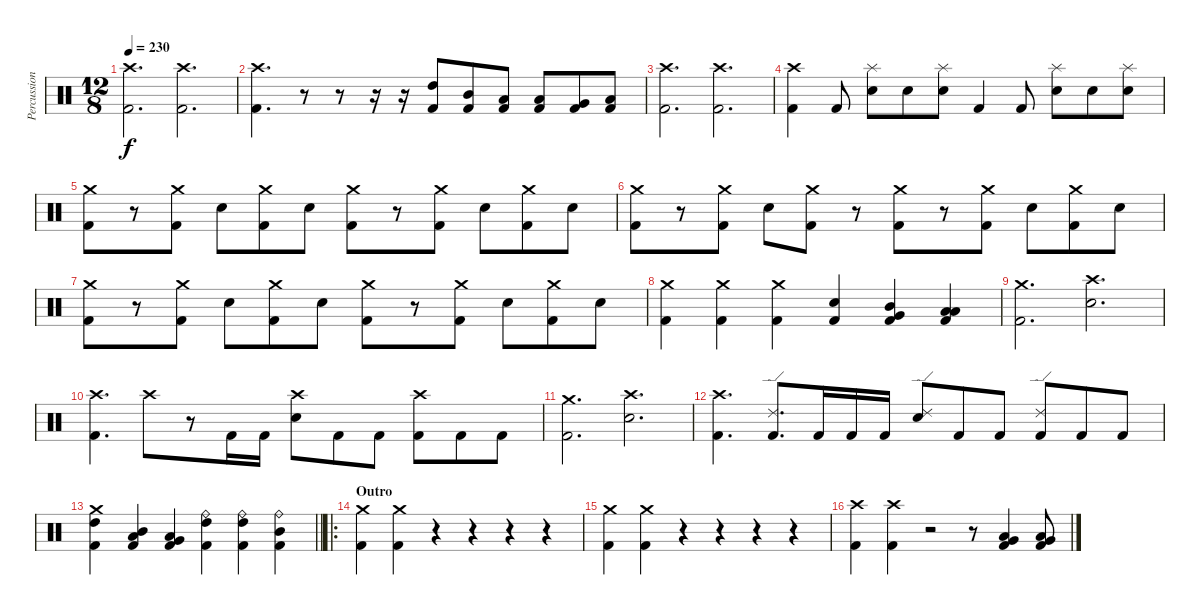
\track ("Percussions" "Percussion") {instrument percussion}
\staff {score}
\articulation defaults
\ts (12 8)
\tempo 230
\clef neutral
\ks c
("Crash high (hit)" "Kick (hit) 2").2{d dy f} ("Crash high (hit)" "Kick (hit) 2").2{d} |
("Crash high (hit)" "Kick (hit) 2").4{d} r.8 r.8 r.16 r.16 ("High Tom (hit)" "Kick (hit) 2").8 ("Mid Tom (hit)" "Kick (hit) 2").8 ("Low Tom (hit)" "Kick (hit) 2").8 ("Low Tom (hit)" "Kick (hit) 2").8 ("Very Low Tom (hit)" "Kick (hit) 2").8 ("Low Floor Tom (hit)" "Kick (hit) 2").8 |
("Crash high (hit)" "Kick (hit) 2").2{d} ("Crash high (hit)" "Kick (hit) 2").2{d} |
("Crash high (hit)" "Kick (hit) 2").4 "Kick (hit) 2".8 ("Splash (hit)" "Electric Snare (hit)").8 "Electric Snare (hit)".8 ("Splash (hit)" "Electric Snare (hit)").8 "Kick (hit) 2".4 "Kick (hit) 2".8 ("Splash (hit)" "Electric Snare (hit)").8 "Electric Snare (hit)".8 ("Splash (hit)" "Electric Snare (hit)").8 |
("Crash medium (hit)" "Kick (hit) 2").8 r.8 ("Crash medium (hit)" "Kick (hit) 2").8 "Electric Snare (hit)".8 ("Crash medium (hit)" "Kick (hit) 2").8 "Electric Snare (hit)".8 ("Crash medium (hit)" "Kick (hit) 2").8 r.8 ("Crash medium (hit)" "Kick (hit) 2").8 "Electric Snare (hit)".8 ("Crash medium (hit)" "Kick (hit) 2").8 "Electric Snare (hit)".8 |
("Crash medium (hit)" "Kick (hit) 2").8 r.8 ("Crash medium (hit)" "Kick (hit) 2").8 "Electric Snare (hit)".8 ("Crash medium (hit)" "Kick (hit) 2").8 r.8 ("Crash medium (hit)" "Kick (hit) 2").8 r.8 ("Crash medium (hit)" "Kick (hit) 2").8 "Electric Snare (hit)".8 ("Crash medium (hit)" "Kick (hit) 2").8 "Electric Snare (hit)".8 |
("Crash medium (hit)" "Kick (hit) 2").8 r.8 ("Crash medium (hit)" "Kick (hit) 2").8 "Electric Snare (hit)".8 ("Crash medium (hit)" "Kick (hit) 2").8 "Electric Snare (hit)".8 ("Crash medium (hit)" "Kick (hit) 2").8 r.8 ("Crash medium (hit)" "Kick (hit) 2").8 "Electric Snare (hit)".8 ("Crash medium (hit)" "Kick (hit) 2").8 "Electric Snare (hit)".8 |
("Crash medium (hit)" "Kick (hit) 2").4 ("Crash medium (hit)" "Kick (hit) 2").4 ("Crash medium (hit)" "Kick (hit) 2").4 ("Electric Snare (hit)" "Kick (hit) 2").4 ("Mid Tom (hit)" "Very Low Tom (hit)" "Kick (hit) 2").4 ("Low Tom (hit)" "Low Floor Tom (hit)" "Kick (hit) 2").4 |
("Crash medium (hit)" "Kick (hit) 2").2{d} ("Crash high (hit)" "Electric Snare (hit)").2{d} |
("Crash high (hit)" "Kick (hit) 2").4{d} "Crash high (hit)".8 r.8 "Kick (hit) 2".16 "Kick (hit) 2".16 ("Crash high (hit)" "Electric Snare (hit)").8 "Kick (hit) 2".8 "Kick (hit) 2".8 ("Crash high (hit)" "Kick (hit) 2").8 "Kick (hit) 2".8 "Kick (hit) 2".8 |
("Crash medium (hit)" "Kick (hit) 2").2{d} ("Crash high (hit)" "Electric Snare (hit)").2{d} |
("Crash high (hit)" "Kick (hit) 2").4{d} ("Ride (edge) 2" "Kick (hit) 2").8{d} "Kick (hit) 2".16 "Kick (hit) 2".16 "Kick (hit) 2".16 ("Ride (edge) 2" "Electric Snare (hit)").8 "Kick (hit) 2".8 "Kick (hit) 2".8 ("Ride (edge) 2" "Kick (hit) 2").8 "Kick (hit) 2".8 "Kick (hit) 2".8 |
\barLineRight lightlight
("Crash medium (hit)" "High Tom (hit)" "Kick (hit) 2").4 ("Low Tom (hit)" "Mid Tom (hit)" "Kick (hit) 2").4 ("Very Low Tom (hit)" "Low Tom (hit)" "Kick (hit) 2").4 ("Ride (bell)" "High Tom (hit)" "Kick (hit) 2").4 ("Ride (bell)" "High Tom (hit)" "Kick (hit) 2").4 ("Ride (bell)" "Mid Tom (hit)" "Kick (hit) 2").4 |
\ro
\section ("" "Outro")
("Crash medium (hit)" "Kick (hit) 2").4 ("Crash medium (hit)" "Kick (hit) 2").4 r.4 r.4 r.4 r.4 |
("Crash medium (hit)" "Kick (hit) 2").4 ("Crash medium (hit)" "Kick (hit) 2").4 r.4 r.4 r.4 r.4 |
("Crash high (hit)" "Kick (hit) 2").4 ("Crash high (hit)" "Kick (hit) 2").4 r.2 r.8 ("Low Tom (hit)" "Very Low Tom (hit)" "Kick (hit) 2").4 ("Low Tom (hit)" "Very Low Tom (hit)" "Kick (hit) 2").8
